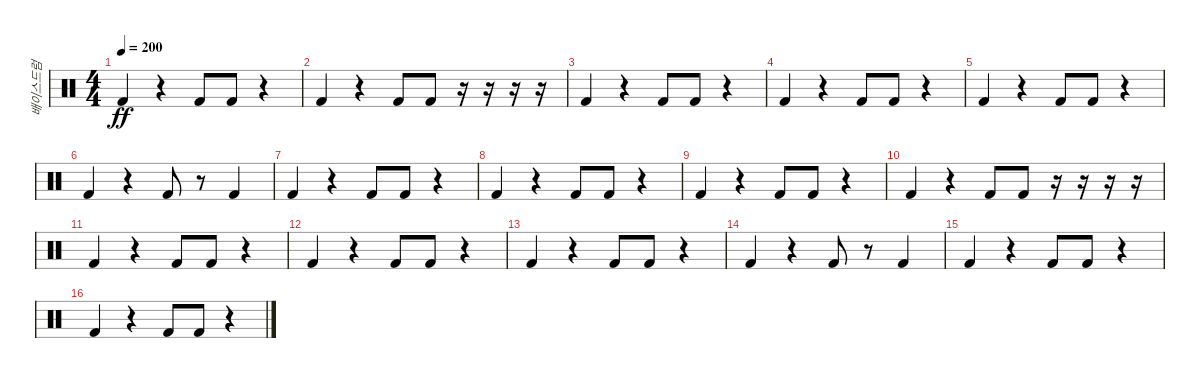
\track ("배이스드럼" "배이스드럼") {instrument percussion}
\staff {score}
\articulation defaults
\ts (4 4)
\tempo 200
\clef neutral
\ks c "Kick (hit) 2".4{dy ff}
r.4 "Kick (hit) 2".8 "Kick (hit) 2".8 r.4 |
"Kick (hit) 2".4 r.4 "Kick (hit) 2".8 "Kick (hit) 2".8 r.16 r.16 r.16 r.16 |
"Kick (hit) 2".4 r.4 "Kick (hit) 2".8 "Kick (hit) 2".8 r.4 |
"Kick (hit) 2".4 r.4 "Kick (hit) 2".8 "Kick (hit) 2".8 r.4 |
"Kick (hit) 2".4 r.4 "Kick (hit) 2".8 "Kick (hit) 2".8 r.4 |
"Kick (hit) 2".4 r.4 "Kick (hit) 2".8 r.8 "Kick (hit) 2".4 |
"Kick (hit) 2".4 r.4 "Kick (hit) 2".8 "Kick (hit) 2".8 r.4 |
"Kick (hit) 2".4 r.4 "Kick (hit) 2".8 "Kick (hit) 2".8 r.4 |
"Kick (hit) 2".4 r.4 "Kick (hit) 2".8 "Kick (hit) 2".8 r.4 |
"Kick (hit) 2".4 r.4 "Kick (hit) 2".8 "Kick (hit) 2".8 r.16 r.16 r.16 r.16 |
"Kick (hit) 2".4 r.4 "Kick (hit) 2".8 "Kick (hit) 2".8 r.4 |
"Kick (hit) 2".4 r.4 "Kick (hit) 2".8 "Kick (hit) 2".8 r.4 |
"Kick (hit) 2".4 r.4 "Kick (hit) 2".8 "Kick (hit) 2".8 r.4 |
"Kick (hit) 2".4 r.4 "Kick (hit) 2".8 r.8 "Kick (hit) 2".4 |
"Kick (hit) 2".4 r.4 "Kick (hit) 2".8 "Kick (hit) 2".8 r.4 |
"Kick (hit) 2".4 r.4 "Kick (hit) 2".8 "Kick (hit) 2".8 r.4
